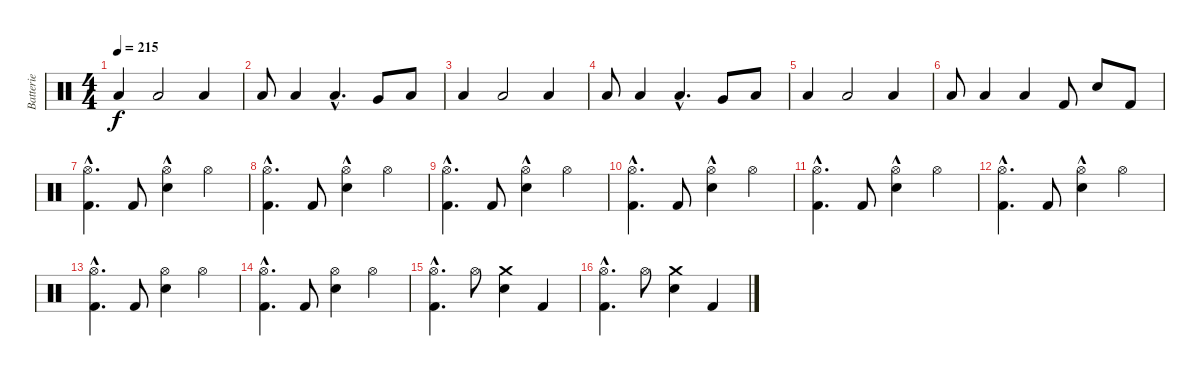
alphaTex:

\track ("Batterie" "Batterie") {instrument percussion}
\staff {score}
\articulation defaults
\ts (4 4)
\tempo 215
\clef neutral
\ks c "Low Floor Tom (hit)".4{dy f} "Low Tom (hit)".2 "Low Floor Tom (hit)".4
|
"Low Tom (hit)".8 "Low Tom (hit)".4 "Low Tom (hit)"{hac}.4{d} "Very Low Tom (hit)".8 "Low Tom (hit)".8 |
"Low Floor Tom (hit)".4 "Low Tom (hit)".2 "Low Floor Tom (hit)".4 |
"Low Tom (hit)".8 "Low Tom (hit)".4 "Low Tom (hit)"{hac}.4{d} "Very Low Tom (hit)".8 "Low Tom (hit)".8 |
"Low Floor Tom (hit)".4 "Low Tom (hit)".2 "Low Floor Tom (hit)".4 |
"Low Tom (hit)".8 "Low Tom (hit)".4 "Low Tom (hit)".4 "Kick (hit) 2".8 "Electric Snare (hit)".8 "Kick (hit) 2".8 |
("Hi-Hat (open)"{hac} "Kick (hit) 2"{hac}).4{d} "Kick (hit) 2".8 ("Hi-Hat (open)"{hac} "Electric Snare (hit)").4 "Hi-Hat (open)".4 |
("Hi-Hat (open)"{hac} "Kick (hit) 2"{hac}).4{d} "Kick (hit) 2".8 ("Hi-Hat (open)"{hac} "Electric Snare (hit)").4 "Hi-Hat (open)".4 |
("Hi-Hat (open)"{hac} "Kick (hit) 2"{hac}).4{d} "Kick (hit) 2".8 ("Hi-Hat (open)"{hac} "Electric Snare (hit)").4 "Hi-Hat (open)".4 |
("Hi-Hat (open)"{hac} "Kick (hit) 2"{hac}).4{d} "Kick (hit) 2".8 ("Hi-Hat (open)"{hac} "Electric Snare (hit)").4 "Hi-Hat (open)".4 |
("Hi-Hat (open)"{hac} "Kick (hit) 2"{hac}).4{d} "Kick (hit) 2".8 ("Hi-Hat (open)"{hac} "Electric Snare (hit)").4 "Hi-Hat (open)".4 |
("Hi-Hat (open)"{hac} "Kick (hit) 2"{hac}).4{d} "Kick (hit) 2".8 ("Hi-Hat (open)"{hac} "Electric Snare (hit)").4 "Hi-Hat (open)".4 |
("Hi-Hat (open)"{hac} "Kick (hit) 2"{hac}).4{d} "Kick (hit) 2".8 ("Hi-Hat (open)" "Electric Snare (hit)").4 "Hi-Hat (open)".4 |
("Hi-Hat (open)"{hac} "Kick (hit) 2"{hac}).4{d} "Kick (hit) 2".8 ("Hi-Hat (open)" "Electric Snare (hit)").4 "Hi-Hat (open)".4 |
("Hi-Hat (open)"{hac} "Kick (hit) 2"{hac}).4{d} "Hi-Hat (open)".8 ("Crash medium (hit)" "Electric Snare (hit)").4 "Kick (hit) 2".4 |
("Hi-Hat (open)"{hac} "Kick (hit) 2"{hac}).4{d} "Hi-Hat (open)".8 ("Crash medium (hit)" "Electric Snare (hit)").4 "Kick (hit) 2".4
